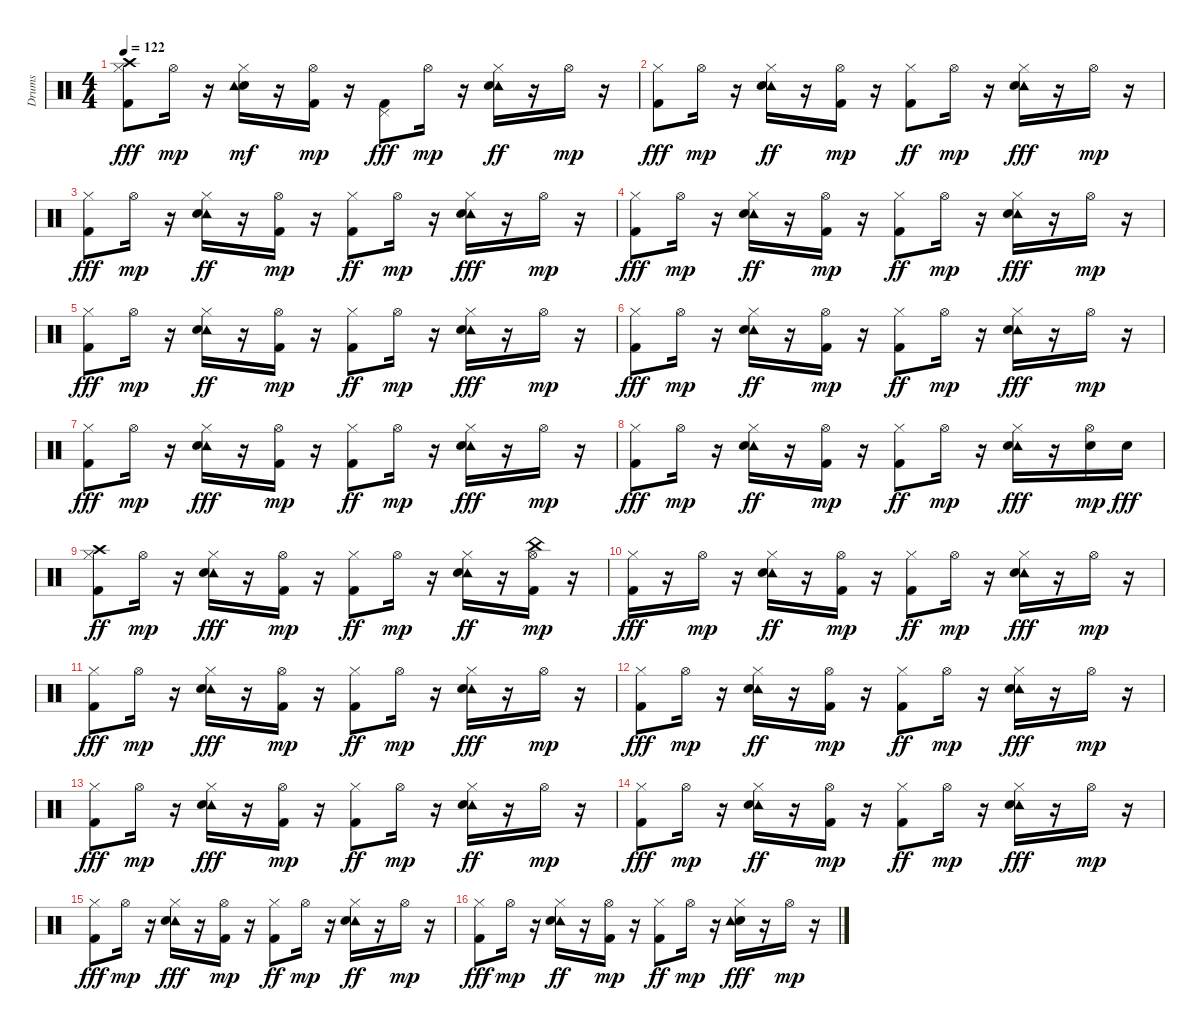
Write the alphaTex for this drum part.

\track ("Drums" "Drums") {instrument percussion}
\staff {score}
\articulation defaults
\ts (4 4)
\tempo 122
\clef neutral
\ks c
("Hi-Hat (closed)" "Crash high (hit)" "Kick (hit) 2").8{dy fff} "Hi-Hat (open)".16{dy mp} r.16 ("Snare (hit) 2" "Hi-Hat (closed)" "Tambourine (hit)").16{dy mf} r.16 ("Kick (hit) 2" "Hi-Hat (open)").16{dy mp} r.16 ("Pedal Hi-Hat (hit)" "Kick (hit) 2").8{dy fff} "Hi-Hat (open)".16{dy mp} r.16 ("Tambourine (hit)" "Snare (hit) 2" "Hi-Hat (closed)").16{dy ff} r.16 "Hi-Hat (open)".16{dy mp} r.16 |
("Kick (hit) 2" "Hi-Hat (closed)").8{dy fff} "Hi-Hat (open)".16{dy mp} r.16 ("Tambourine (hit)" "Snare (hit) 2" "Hi-Hat (closed)").16{dy ff} r.16 ("Kick (hit) 2" "Hi-Hat (open)").16{dy mp} r.16 ("Kick (hit) 2" "Hi-Hat (closed)").8{dy ff} "Hi-Hat (open)".16{dy mp} r.16 ("Tambourine (hit)" "Snare (hit) 2" "Hi-Hat (closed)").16{dy fff} r.16 "Hi-Hat (open)".16{dy mp} r.16 |
("Hi-Hat (closed)" "Kick (hit) 2").8{dy fff} "Hi-Hat (open)".16{dy mp} r.16 ("Tambourine (hit)" "Snare (hit) 2" "Hi-Hat (closed)").16{dy ff} r.16 ("Kick (hit) 2" "Hi-Hat (open)").16{dy mp} r.16 ("Kick (hit) 2" "Hi-Hat (closed)").8{dy ff} "Hi-Hat (open)".16{dy mp} r.16 ("Tambourine (hit)" "Hi-Hat (closed)" "Snare (hit) 2").16{dy fff} r.16 "Hi-Hat (open)".16{dy mp} r.16 |
("Kick (hit) 2" "Hi-Hat (closed)").8{dy fff} "Hi-Hat (open)".16{dy mp} r.16 ("Tambourine (hit)" "Snare (hit) 2" "Hi-Hat (closed)").16{dy ff} r.16 ("Kick (hit) 2" "Hi-Hat (open)").16{dy mp} r.16 ("Kick (hit) 2" "Hi-Hat (closed)").8{dy ff} "Hi-Hat (open)".16{dy mp} r.16 ("Tambourine (hit)" "Snare (hit) 2" "Hi-Hat (closed)").16{dy fff} r.16 "Hi-Hat (open)".16{dy mp} r.16 |
("Kick (hit) 2" "Hi-Hat (closed)").8{dy fff} "Hi-Hat (open)".16{dy mp} r.16 ("Tambourine (hit)" "Snare (hit) 2" "Hi-Hat (closed)").16{dy ff} r.16 ("Kick (hit) 2" "Hi-Hat (open)").16{dy mp} r.16 ("Kick (hit) 2" "Hi-Hat (closed)").8{dy ff} "Hi-Hat (open)".16{dy mp} r.16 ("Tambourine (hit)" "Hi-Hat (closed)" "Snare (hit) 2").16{dy fff} r.16 "Hi-Hat (open)".16{dy mp} r.16 |
("Kick (hit) 2" "Hi-Hat (closed)").8{dy fff} "Hi-Hat (open)".16{dy mp} r.16 ("Tambourine (hit)" "Snare (hit) 2" "Hi-Hat (closed)").16{dy ff} r.16 ("Kick (hit) 2" "Hi-Hat (open)").16{dy mp} r.16 ("Kick (hit) 2" "Hi-Hat (closed)").8{dy ff} "Hi-Hat (open)".16{dy mp} r.16 ("Tambourine (hit)" "Snare (hit) 2" "Hi-Hat (closed)").16{dy fff} r.16 "Hi-Hat (open)".16{dy mp} r.16 |
("Hi-Hat (closed)" "Kick (hit) 2").8{dy fff} "Hi-Hat (open)".16{dy mp} r.16 ("Tambourine (hit)" "Hi-Hat (closed)" "Snare (hit) 2").16{dy fff} r.16 ("Kick (hit) 2" "Hi-Hat (open)").16{dy mp} r.16 ("Kick (hit) 2" "Hi-Hat (closed)").8{dy ff} "Hi-Hat (open)".16{dy mp} r.16 ("Tambourine (hit)" "Hi-Hat (closed)" "Snare (hit) 2").16{dy fff} r.16 "Hi-Hat (open)".16{dy mp} r.16 |
("Kick (hit) 2" "Hi-Hat (closed)").8{dy fff} "Hi-Hat (open)".16{dy mp} r.16 ("Tambourine (hit)" "Snare (hit) 2" "Hi-Hat (closed)").16{dy ff} r.16 ("Kick (hit) 2" "Hi-Hat (open)").16{dy mp} r.16 ("Kick (hit) 2" "Hi-Hat (closed)").8{dy ff} "Hi-Hat (open)".16{dy mp} r.16 ("Tambourine (hit)" "Snare (hit) 2" "Hi-Hat (closed)").16{dy fff} r.16 ("Snare (hit) 2" "Hi-Hat (open)").16{dy mp} "Snare (hit) 2".16{dy fff} |
("Hi-Hat (closed)" "Kick (hit) 2" "Crash high (hit)").8{dy ff} "Hi-Hat (open)".16{dy mp} r.16 ("Tambourine (hit)" "Hi-Hat (closed)" "Snare (hit) 2").16{dy fff} r.16 ("Kick (hit) 2" "Hi-Hat (open)").16{dy mp} r.16 ("Kick (hit) 2" "Hi-Hat (closed)").8{dy ff} "Hi-Hat (open)".16{dy mp} r.16 ("Tambourine (hit)" "Snare (hit) 2" "Hi-Hat (closed)").16{dy ff} r.16 ("Kick (hit) 2" "China (hit)" "Hi-Hat (open)").16{dy mp} r.16 |
("Kick (hit) 2" "Hi-Hat (closed)").16{dy fff} r.16 "Hi-Hat (open)".16{dy mp} r.16 ("Tambourine (hit)" "Snare (hit) 2" "Hi-Hat (closed)").16{dy ff} r.16 ("Kick (hit) 2" "Hi-Hat (open)").16{dy mp} r.16 ("Kick (hit) 2" "Hi-Hat (closed)").8{dy ff} "Hi-Hat (open)".16{dy mp} r.16 ("Tambourine (hit)" "Snare (hit) 2" "Hi-Hat (closed)").16{dy fff} r.16 "Hi-Hat (open)".16{dy mp} r.16 |
("Kick (hit) 2" "Hi-Hat (closed)").8{dy fff} "Hi-Hat (open)".16{dy mp} r.16 ("Tambourine (hit)" "Hi-Hat (closed)" "Snare (hit) 2").16{dy fff} r.16 ("Kick (hit) 2" "Hi-Hat (open)").16{dy mp} r.16 ("Kick (hit) 2" "Hi-Hat (closed)").8{dy ff} "Hi-Hat (open)".16{dy mp} r.16 ("Tambourine (hit)" "Hi-Hat (closed)" "Snare (hit) 2").16{dy fff} r.16 "Hi-Hat (open)".16{dy mp} r.16 |
("Kick (hit) 2" "Hi-Hat (closed)").8{dy fff} "Hi-Hat (open)".16{dy mp} r.16 ("Tambourine (hit)" "Snare (hit) 2" "Hi-Hat (closed)").16{dy ff} r.16 ("Kick (hit) 2" "Hi-Hat (open)").16{dy mp} r.16 ("Kick (hit) 2" "Hi-Hat (closed)").8{dy ff} "Hi-Hat (open)".16{dy mp} r.16 ("Tambourine (hit)" "Snare (hit) 2" "Hi-Hat (closed)").16{dy fff} r.16 "Hi-Hat (open)".16{dy mp} r.16 |
("Kick (hit) 2" "Hi-Hat (closed)").8{dy fff} "Hi-Hat (open)".16{dy mp} r.16 ("Tambourine (hit)" "Hi-Hat (closed)" "Snare (hit) 2").16{dy fff} r.16 ("Kick (hit) 2" "Hi-Hat (open)").16{dy mp} r.16 ("Kick (hit) 2" "Hi-Hat (closed)").8{dy ff} "Hi-Hat (open)".16{dy mp} r.16 ("Tambourine (hit)" "Snare (hit) 2" "Hi-Hat (closed)").16{dy ff} r.16 "Hi-Hat (open)".16{dy mp} r.16 |
("Kick (hit) 2" "Hi-Hat (closed)").8{dy fff} "Hi-Hat (open)".16{dy mp} r.16 ("Tambourine (hit)" "Snare (hit) 2" "Hi-Hat (closed)").16{dy ff} r.16 ("Kick (hit) 2" "Hi-Hat (open)").16{dy mp} r.16 ("Kick (hit) 2" "Hi-Hat (closed)").8{dy ff} "Hi-Hat (open)".16{dy mp} r.16 ("Tambourine (hit)" "Snare (hit) 2" "Hi-Hat (closed)").16{dy fff} r.16 "Hi-Hat (open)".16{dy mp} r.16 |
("Hi-Hat (closed)" "Kick (hit) 2").8{dy fff} "Hi-Hat (open)".16{dy mp} r.16 ("Tambourine (hit)" "Hi-Hat (closed)" "Snare (hit) 2").16{dy fff} r.16 ("Kick (hit) 2" "Hi-Hat (open)").16{dy mp} r.16 ("Kick (hit) 2" "Hi-Hat (closed)").8{dy ff} "Hi-Hat (open)".16{dy mp} r.16 ("Tambourine (hit)" "Snare (hit) 2" "Hi-Hat (closed)").16{dy ff} r.16 "Hi-Hat (open)".16{dy mp} r.16 |
("Kick (hit) 2" "Hi-Hat (closed)").8{dy fff} "Hi-Hat (open)".16{dy mp} r.16 ("Tambourine (hit)" "Snare (hit) 2" "Hi-Hat (closed)").16{dy ff} r.16 ("Kick (hit) 2" "Hi-Hat (open)").16{dy mp} r.16 ("Kick (hit) 2" "Hi-Hat (closed)").8{dy ff} "Hi-Hat (open)".16{dy mp} r.16 ("Snare (hit) 2" "Tambourine (hit)" "Hi-Hat (closed)").16{dy fff} r.16 "Hi-Hat (open)".16{dy mp} r.16
